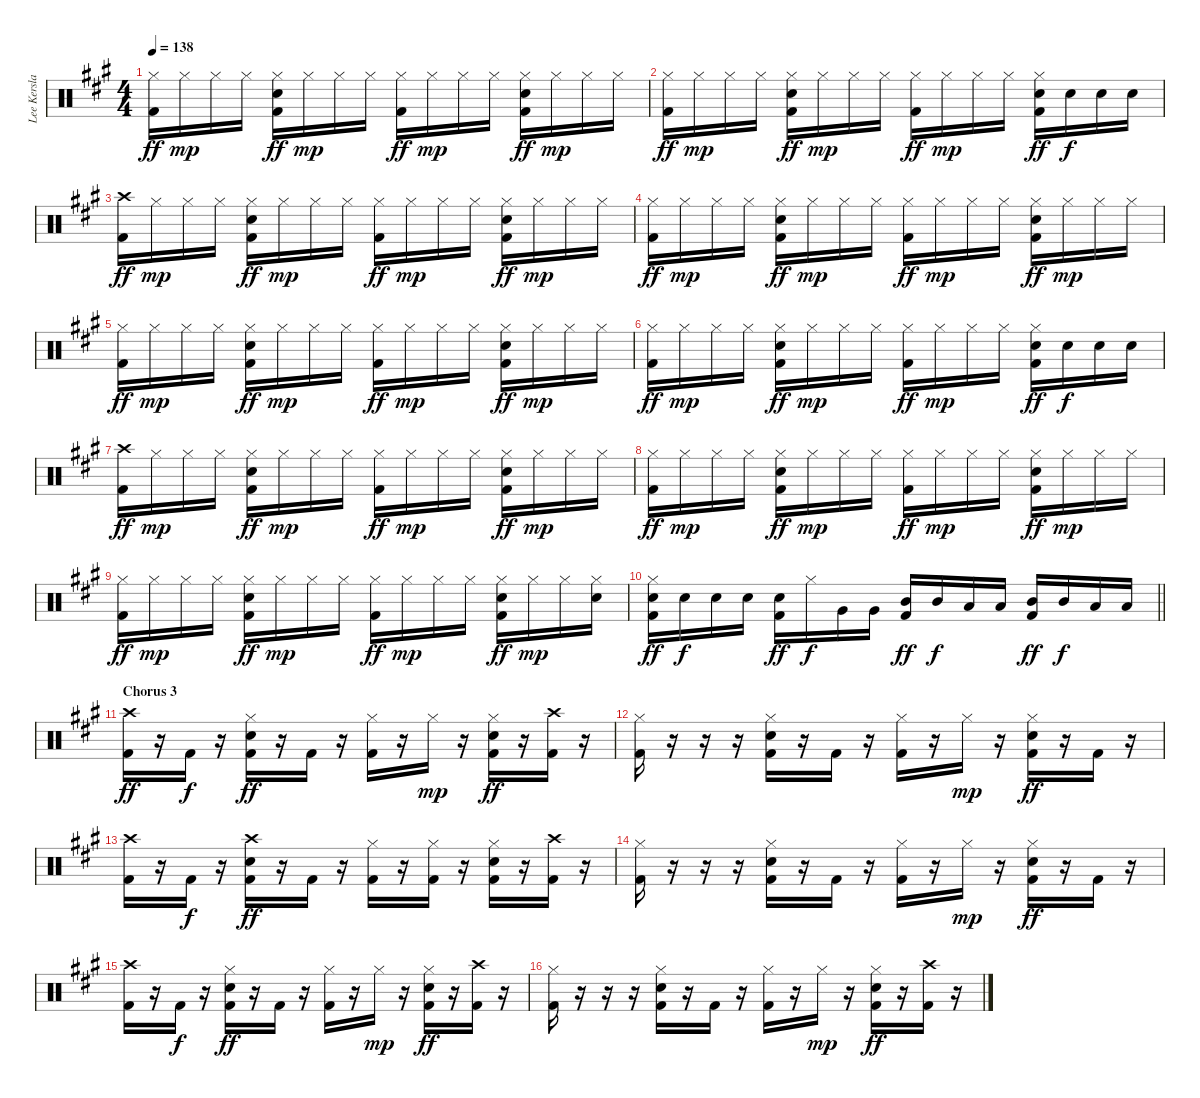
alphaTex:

\track ("Lee Kerslake" "Lee Kersla") {instrument percussion}
\staff {score}
\articulation defaults
\ts (4 4)
\tempo 138
\clef neutral
\ks a
("Hi-Hat (closed)" "Kick (hit) 2").16{dy ff} "Hi-Hat (closed)".16{dy mp} "Hi-Hat (closed)".16 "Hi-Hat (closed)".16 ("Hi-Hat (closed)" "Snare (hit) 2" "Kick (hit) 2").16{dy ff} "Hi-Hat (closed)".16{dy mp} "Hi-Hat (closed)".16 "Hi-Hat (closed)".16 ("Hi-Hat (closed)" "Kick (hit) 2").16{dy ff} "Hi-Hat (closed)".16{dy mp} "Hi-Hat (closed)".16 "Hi-Hat (closed)".16 ("Hi-Hat (closed)" "Snare (hit) 2" "Kick (hit) 2").16{dy ff} "Hi-Hat (closed)".16{dy mp} "Hi-Hat (closed)".16 "Hi-Hat (closed)".16 |
("Hi-Hat (closed)" "Kick (hit) 2").16{dy ff} "Hi-Hat (closed)".16{dy mp} "Hi-Hat (closed)".16 "Hi-Hat (closed)".16 ("Hi-Hat (closed)" "Snare (hit) 2" "Kick (hit) 2").16{dy ff} "Hi-Hat (closed)".16{dy mp} "Hi-Hat (closed)".16 "Hi-Hat (closed)".16 ("Hi-Hat (closed)" "Kick (hit) 2").16{dy ff} "Hi-Hat (closed)".16{dy mp} "Hi-Hat (closed)".16 "Hi-Hat (closed)".16 ("Hi-Hat (closed)" "Snare (hit) 2" "Kick (hit) 2").16{dy ff} "Snare (hit) 2".16{dy f} "Snare (hit) 2".16 "Snare (hit) 2".16 |
("Crash high (hit)" "Kick (hit) 2").16{dy ff} "Hi-Hat (closed)".16{dy mp} "Hi-Hat (closed)".16 "Hi-Hat (closed)".16 ("Hi-Hat (closed)" "Snare (hit) 2" "Kick (hit) 2").16{dy ff} "Hi-Hat (closed)".16{dy mp} "Hi-Hat (closed)".16 "Hi-Hat (closed)".16 ("Hi-Hat (closed)" "Kick (hit) 2").16{dy ff} "Hi-Hat (closed)".16{dy mp} "Hi-Hat (closed)".16 "Hi-Hat (closed)".16 ("Hi-Hat (closed)" "Snare (hit) 2" "Kick (hit) 2").16{dy ff} "Hi-Hat (closed)".16{dy mp} "Hi-Hat (closed)".16 "Hi-Hat (closed)".16 |
("Hi-Hat (closed)" "Kick (hit) 2").16{dy ff} "Hi-Hat (closed)".16{dy mp} "Hi-Hat (closed)".16 "Hi-Hat (closed)".16 ("Hi-Hat (closed)" "Snare (hit) 2" "Kick (hit) 2").16{dy ff} "Hi-Hat (closed)".16{dy mp} "Hi-Hat (closed)".16 "Hi-Hat (closed)".16 ("Hi-Hat (closed)" "Kick (hit) 2").16{dy ff} "Hi-Hat (closed)".16{dy mp} "Hi-Hat (closed)".16 "Hi-Hat (closed)".16 ("Hi-Hat (closed)" "Snare (hit) 2" "Kick (hit) 2").16{dy ff} "Hi-Hat (closed)".16{dy mp} "Hi-Hat (closed)".16 "Hi-Hat (closed)".16 |
("Hi-Hat (closed)" "Kick (hit) 2").16{dy ff} "Hi-Hat (closed)".16{dy mp} "Hi-Hat (closed)".16 "Hi-Hat (closed)".16 ("Hi-Hat (closed)" "Snare (hit) 2" "Kick (hit) 2").16{dy ff} "Hi-Hat (closed)".16{dy mp} "Hi-Hat (closed)".16 "Hi-Hat (closed)".16 ("Hi-Hat (closed)" "Kick (hit) 2").16{dy ff} "Hi-Hat (closed)".16{dy mp} "Hi-Hat (closed)".16 "Hi-Hat (closed)".16 ("Hi-Hat (closed)" "Snare (hit) 2" "Kick (hit) 2").16{dy ff} "Hi-Hat (closed)".16{dy mp} "Hi-Hat (closed)".16 "Hi-Hat (closed)".16 |
("Hi-Hat (closed)" "Kick (hit) 2").16{dy ff} "Hi-Hat (closed)".16{dy mp} "Hi-Hat (closed)".16 "Hi-Hat (closed)".16 ("Hi-Hat (closed)" "Snare (hit) 2" "Kick (hit) 2").16{dy ff} "Hi-Hat (closed)".16{dy mp} "Hi-Hat (closed)".16 "Hi-Hat (closed)".16 ("Hi-Hat (closed)" "Kick (hit) 2").16{dy ff} "Hi-Hat (closed)".16{dy mp} "Hi-Hat (closed)".16 "Hi-Hat (closed)".16 ("Hi-Hat (closed)" "Snare (hit) 2" "Kick (hit) 2").16{dy ff} "Snare (hit) 2".16{dy f} "Snare (hit) 2".16 "Snare (hit) 2".16 |
("Crash high (hit)" "Kick (hit) 2").16{dy ff} "Hi-Hat (closed)".16{dy mp} "Hi-Hat (closed)".16 "Hi-Hat (closed)".16 ("Hi-Hat (closed)" "Snare (hit) 2" "Kick (hit) 2").16{dy ff} "Hi-Hat (closed)".16{dy mp} "Hi-Hat (closed)".16 "Hi-Hat (closed)".16 ("Hi-Hat (closed)" "Kick (hit) 2").16{dy ff} "Hi-Hat (closed)".16{dy mp} "Hi-Hat (closed)".16 "Hi-Hat (closed)".16 ("Hi-Hat (closed)" "Snare (hit) 2" "Kick (hit) 2").16{dy ff} "Hi-Hat (closed)".16{dy mp} "Hi-Hat (closed)".16 "Hi-Hat (closed)".16 |
("Hi-Hat (closed)" "Kick (hit) 2").16{dy ff} "Hi-Hat (closed)".16{dy mp} "Hi-Hat (closed)".16 "Hi-Hat (closed)".16 ("Hi-Hat (closed)" "Snare (hit) 2" "Kick (hit) 2").16{dy ff} "Hi-Hat (closed)".16{dy mp} "Hi-Hat (closed)".16 "Hi-Hat (closed)".16 ("Hi-Hat (closed)" "Kick (hit) 2").16{dy ff} "Hi-Hat (closed)".16{dy mp} "Hi-Hat (closed)".16 "Hi-Hat (closed)".16 ("Hi-Hat (closed)" "Snare (hit) 2" "Kick (hit) 2").16{dy ff} "Hi-Hat (closed)".16{dy mp} "Hi-Hat (closed)".16 "Hi-Hat (closed)".16 |
("Hi-Hat (closed)" "Kick (hit) 2").16{dy ff} "Hi-Hat (closed)".16{dy mp} "Hi-Hat (closed)".16 "Hi-Hat (closed)".16 ("Hi-Hat (closed)" "Snare (hit) 2" "Kick (hit) 2").16{dy ff} "Hi-Hat (closed)".16{dy mp} "Hi-Hat (closed)".16 "Hi-Hat (closed)".16 ("Hi-Hat (closed)" "Kick (hit) 2").16{dy ff} "Hi-Hat (closed)".16{dy mp} "Hi-Hat (closed)".16 "Hi-Hat (closed)".16 ("Hi-Hat (closed)" "Snare (hit) 2" "Kick (hit) 2").16{dy ff} "Hi-Hat (closed)".16{dy mp} "Hi-Hat (closed)".16 ("Hi-Hat (closed)" "Snare (hit) 2").16 |
\barLineRight lightlight
("Hi-Hat (closed)" "Snare (hit) 2" "Kick (hit) 2").16{dy ff} "Snare (hit) 2".16{dy f} "Snare (hit) 2".16 "Snare (hit) 2".16 ("Snare (hit) 2" "Kick (hit) 2").16{dy ff} "Hi-Hat (closed)".16{dy f} "Very Low Tom (hit)".16 "Very Low Tom (hit)".16 ("Mid Tom (hit)" "Kick (hit) 2").16{dy ff} "Mid Tom (hit)".16{dy f} "Low Tom (hit)".16 "Low Tom (hit)".16 ("Mid Tom (hit)" "Kick (hit) 2").16{dy ff} "Mid Tom (hit)".16{dy f} "Low Tom (hit)".16 "Low Floor Tom (hit)".16 |
\section ("" "Chorus 3")
("Crash high (hit)" "Kick (hit) 2").16{dy ff} r.16 "Kick (hit) 2".16{dy f} r.16 ("Hi-Hat (closed)" "Snare (hit) 2" "Kick (hit) 2").16{dy ff} r.16 "Kick (hit) 2".16 r.16 ("Hi-Hat (closed)" "Kick (hit) 2").16 r.16 "Hi-Hat (closed)".16{dy mp} r.16 ("Hi-Hat (closed)" "Snare (hit) 2" "Kick (hit) 2").16{dy ff} r.16 ("Crash high (hit)" "Kick (hit) 2").16 r.16 |
("Hi-Hat (closed)" "Kick (hit) 2").16 r.16 r.16 r.16 ("Hi-Hat (closed)" "Snare (hit) 2" "Kick (hit) 2").16 r.16 "Kick (hit) 2".16 r.16 ("Hi-Hat (closed)" "Kick (hit) 2").16 r.16 "Hi-Hat (closed)".16{dy mp} r.16 ("Hi-Hat (closed)" "Snare (hit) 2" "Kick (hit) 2").16{dy ff} r.16 "Kick (hit) 2".16 r.16 |
("Crash high (hit)" "Kick (hit) 2").16 r.16 "Kick (hit) 2".16{dy f} r.16 ("Crash high (hit)" "Snare (hit) 2" "Kick (hit) 2").16{dy ff} r.16 "Kick (hit) 2".16 r.16 ("Hi-Hat (closed)" "Kick (hit) 2").16 r.16 ("Hi-Hat (closed)" "Kick (hit) 2").16 r.16 ("Hi-Hat (closed)" "Snare (hit) 2" "Kick (hit) 2").16 r.16 ("Crash high (hit)" "Kick (hit) 2").16 r.16 |
("Hi-Hat (closed)" "Kick (hit) 2").16 r.16 r.16 r.16 ("Hi-Hat (closed)" "Snare (hit) 2" "Kick (hit) 2").16 r.16 "Kick (hit) 2".16 r.16 ("Hi-Hat (closed)" "Kick (hit) 2").16 r.16 "Hi-Hat (closed)".16{dy mp} r.16 ("Hi-Hat (closed)" "Snare (hit) 2" "Kick (hit) 2").16{dy ff} r.16 "Kick (hit) 2".16 r.16 |
("Crash high (hit)" "Kick (hit) 2").16 r.16 "Kick (hit) 2".16{dy f} r.16 ("Hi-Hat (closed)" "Snare (hit) 2" "Kick (hit) 2").16{dy ff} r.16 "Kick (hit) 2".16 r.16 ("Hi-Hat (closed)" "Kick (hit) 2").16 r.16 "Hi-Hat (closed)".16{dy mp} r.16 ("Hi-Hat (closed)" "Snare (hit) 2" "Kick (hit) 2").16{dy ff} r.16 ("Crash high (hit)" "Kick (hit) 2").16 r.16 |
("Hi-Hat (closed)" "Kick (hit) 2").16 r.16 r.16 r.16 ("Hi-Hat (closed)" "Snare (hit) 2" "Kick (hit) 2").16 r.16 "Kick (hit) 2".16 r.16 ("Hi-Hat (closed)" "Kick (hit) 2").16 r.16 "Hi-Hat (closed)".16{dy mp} r.16 ("Hi-Hat (closed)" "Snare (hit) 2" "Kick (hit) 2").16{dy ff} r.16 ("Crash high (hit)" "Kick (hit) 2").16 r.16
